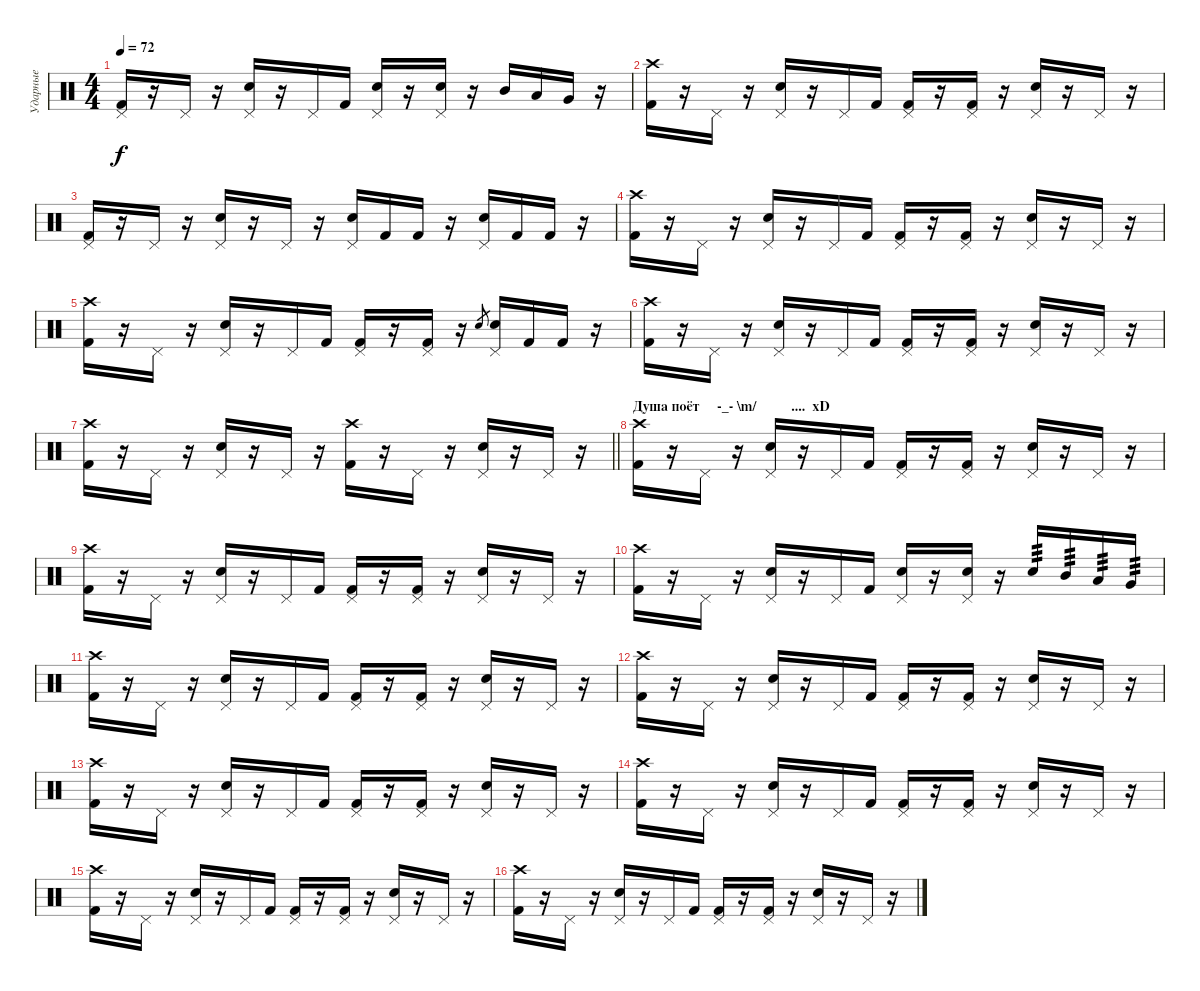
\track ("Ударные" "Ударные") {instrument percussion}
\staff {score}
\articulation defaults
\ts (4 4)
\tempo 72
\clef neutral
\ks c
("Pedal Hi-Hat (hit)" "Kick (hit) 2").16{dy f} r.16 "Pedal Hi-Hat (hit)".16 r.16 ("Pedal Hi-Hat (hit)" "Electric Snare (hit)").16 r.16 "Pedal Hi-Hat (hit)".16 "Kick (hit) 2".16 ("Pedal Hi-Hat (hit)" "Electric Snare (hit)").16 r.16 ("Pedal Hi-Hat (hit)" "Electric Snare (hit)").16 r.16 "Mid Tom (hit)".16 "Low Tom (hit)".16 "Very Low Tom (hit)".16 r.16 |
("Crash high (hit)" "Kick (hit) 2").16 r.16 "Pedal Hi-Hat (hit)".16 r.16 ("Pedal Hi-Hat (hit)" "Electric Snare (hit)").16 r.16 "Pedal Hi-Hat (hit)".16 "Kick (hit) 2".16 ("Pedal Hi-Hat (hit)" "Kick (hit) 2").16 r.16 ("Pedal Hi-Hat (hit)" "Kick (hit) 2").16 r.16 ("Pedal Hi-Hat (hit)" "Electric Snare (hit)").16 r.16 "Pedal Hi-Hat (hit)".16 r.16 |
("Pedal Hi-Hat (hit)" "Kick (hit) 2").16 r.16 "Pedal Hi-Hat (hit)".16 r.16 ("Pedal Hi-Hat (hit)" "Electric Snare (hit)").16 r.16 "Pedal Hi-Hat (hit)".16 r.16 ("Pedal Hi-Hat (hit)" "Electric Snare (hit)").16 "Kick (hit) 2".16 "Kick (hit) 2".16 r.16 ("Pedal Hi-Hat (hit)" "Electric Snare (hit)").16 "Kick (hit) 2".16 "Kick (hit) 2".16 r.16 |
("Crash high (hit)" "Kick (hit) 2").16 r.16 "Pedal Hi-Hat (hit)".16 r.16 ("Pedal Hi-Hat (hit)" "Electric Snare (hit)").16 r.16 "Pedal Hi-Hat (hit)".16 "Kick (hit) 2".16 ("Pedal Hi-Hat (hit)" "Kick (hit) 2").16 r.16 ("Pedal Hi-Hat (hit)" "Kick (hit) 2").16 r.16 ("Pedal Hi-Hat (hit)" "Electric Snare (hit)").16 r.16 "Pedal Hi-Hat (hit)".16 r.16 |
("Crash high (hit)" "Kick (hit) 2").16 r.16 "Pedal Hi-Hat (hit)".16 r.16 ("Pedal Hi-Hat (hit)" "Electric Snare (hit)").16 r.16 "Pedal Hi-Hat (hit)".16 "Kick (hit) 2".16 ("Pedal Hi-Hat (hit)" "Kick (hit) 2").16 r.16 ("Pedal Hi-Hat (hit)" "Kick (hit) 2").16 r.16 "Electric Snare (hit)"{h}.8{gr} ("Pedal Hi-Hat (hit)" "Electric Snare (hit)").16 "Kick (hit) 2".16 "Kick (hit) 2".16 r.16 |
("Crash high (hit)" "Kick (hit) 2").16 r.16 "Pedal Hi-Hat (hit)".16 r.16 ("Pedal Hi-Hat (hit)" "Electric Snare (hit)").16 r.16 "Pedal Hi-Hat (hit)".16 "Kick (hit) 2".16 ("Pedal Hi-Hat (hit)" "Kick (hit) 2").16 r.16 ("Pedal Hi-Hat (hit)" "Kick (hit) 2").16 r.16 ("Pedal Hi-Hat (hit)" "Electric Snare (hit)").16 r.16 "Pedal Hi-Hat (hit)".16 r.16 |
\barLineRight lightlight
("Crash high (hit)" "Kick (hit) 2").16 r.16 "Pedal Hi-Hat (hit)".16 r.16 ("Pedal Hi-Hat (hit)" "Electric Snare (hit)").16 r.16 "Pedal Hi-Hat (hit)".16 r.16 ("Crash high (hit)" "Kick (hit) 2").16 r.16 "Pedal Hi-Hat (hit)".16 r.16 ("Pedal Hi-Hat (hit)" "Electric Snare (hit)").16 r.16 "Pedal Hi-Hat (hit)".16 r.16 |
\section ("" "Душа поёт     -_- \\m/          ....  xD")
("Crash high (hit)" "Kick (hit) 2").16 r.16 "Pedal Hi-Hat (hit)".16 r.16 ("Pedal Hi-Hat (hit)" "Electric Snare (hit)").16 r.16 "Pedal Hi-Hat (hit)".16 "Kick (hit) 2".16 ("Pedal Hi-Hat (hit)" "Kick (hit) 2").16 r.16 ("Pedal Hi-Hat (hit)" "Kick (hit) 2").16 r.16 ("Pedal Hi-Hat (hit)" "Electric Snare (hit)").16 r.16 "Pedal Hi-Hat (hit)".16 r.16 |
("Crash high (hit)" "Kick (hit) 2").16 r.16 "Pedal Hi-Hat (hit)".16 r.16 ("Pedal Hi-Hat (hit)" "Electric Snare (hit)").16 r.16 "Pedal Hi-Hat (hit)".16 "Kick (hit) 2".16 ("Pedal Hi-Hat (hit)" "Kick (hit) 2").16 r.16 ("Pedal Hi-Hat (hit)" "Kick (hit) 2").16 r.16 ("Pedal Hi-Hat (hit)" "Electric Snare (hit)").16 r.16 "Pedal Hi-Hat (hit)".16 r.16 |
("Crash high (hit)" "Kick (hit) 2").16 r.16 "Pedal Hi-Hat (hit)".16 r.16 ("Pedal Hi-Hat (hit)" "Electric Snare (hit)").16 r.16 "Pedal Hi-Hat (hit)".16 "Kick (hit) 2".16 ("Pedal Hi-Hat (hit)" "Electric Snare (hit)").16 r.16 ("Pedal Hi-Hat (hit)" "Electric Snare (hit)").16 r.16 "Electric Snare (hit)".16{tp 3} "Mid Tom (hit)".16{tp 3} "Low Tom (hit)".16{tp 3} "Very Low Tom (hit)".16{tp 3} |
("Crash high (hit)" "Kick (hit) 2").16 r.16 "Pedal Hi-Hat (hit)".16 r.16 ("Pedal Hi-Hat (hit)" "Electric Snare (hit)").16 r.16 "Pedal Hi-Hat (hit)".16 "Kick (hit) 2".16 ("Pedal Hi-Hat (hit)" "Kick (hit) 2").16 r.16 ("Pedal Hi-Hat (hit)" "Kick (hit) 2").16 r.16 ("Pedal Hi-Hat (hit)" "Electric Snare (hit)").16 r.16 "Pedal Hi-Hat (hit)".16 r.16 |
("Crash high (hit)" "Kick (hit) 2").16 r.16 "Pedal Hi-Hat (hit)".16 r.16 ("Pedal Hi-Hat (hit)" "Electric Snare (hit)").16 r.16 "Pedal Hi-Hat (hit)".16 "Kick (hit) 2".16 ("Pedal Hi-Hat (hit)" "Kick (hit) 2").16 r.16 ("Pedal Hi-Hat (hit)" "Kick (hit) 2").16 r.16 ("Pedal Hi-Hat (hit)" "Electric Snare (hit)").16 r.16 "Pedal Hi-Hat (hit)".16 r.16 |
("Crash high (hit)" "Kick (hit) 2").16 r.16 "Pedal Hi-Hat (hit)".16 r.16 ("Pedal Hi-Hat (hit)" "Electric Snare (hit)").16 r.16 "Pedal Hi-Hat (hit)".16 "Kick (hit) 2".16 ("Pedal Hi-Hat (hit)" "Kick (hit) 2").16 r.16 ("Pedal Hi-Hat (hit)" "Kick (hit) 2").16 r.16 ("Pedal Hi-Hat (hit)" "Electric Snare (hit)").16 r.16 "Pedal Hi-Hat (hit)".16 r.16 |
("Crash high (hit)" "Kick (hit) 2").16 r.16 "Pedal Hi-Hat (hit)".16 r.16 ("Pedal Hi-Hat (hit)" "Electric Snare (hit)").16 r.16 "Pedal Hi-Hat (hit)".16 "Kick (hit) 2".16 ("Pedal Hi-Hat (hit)" "Kick (hit) 2").16 r.16 ("Pedal Hi-Hat (hit)" "Kick (hit) 2").16 r.16 ("Pedal Hi-Hat (hit)" "Electric Snare (hit)").16 r.16 "Pedal Hi-Hat (hit)".16 r.16 |
("Crash high (hit)" "Kick (hit) 2").16 r.16 "Pedal Hi-Hat (hit)".16 r.16 ("Pedal Hi-Hat (hit)" "Electric Snare (hit)").16 r.16 "Pedal Hi-Hat (hit)".16 "Kick (hit) 2".16 ("Pedal Hi-Hat (hit)" "Kick (hit) 2").16 r.16 ("Pedal Hi-Hat (hit)" "Kick (hit) 2").16 r.16 ("Pedal Hi-Hat (hit)" "Electric Snare (hit)").16 r.16 "Pedal Hi-Hat (hit)".16 r.16 |
("Crash high (hit)" "Kick (hit) 2").16 r.16 "Pedal Hi-Hat (hit)".16 r.16 ("Pedal Hi-Hat (hit)" "Electric Snare (hit)").16 r.16 "Pedal Hi-Hat (hit)".16 "Kick (hit) 2".16 ("Pedal Hi-Hat (hit)" "Kick (hit) 2").16 r.16 ("Pedal Hi-Hat (hit)" "Kick (hit) 2").16 r.16 ("Pedal Hi-Hat (hit)" "Electric Snare (hit)").16 r.16 "Pedal Hi-Hat (hit)".16 r.16
